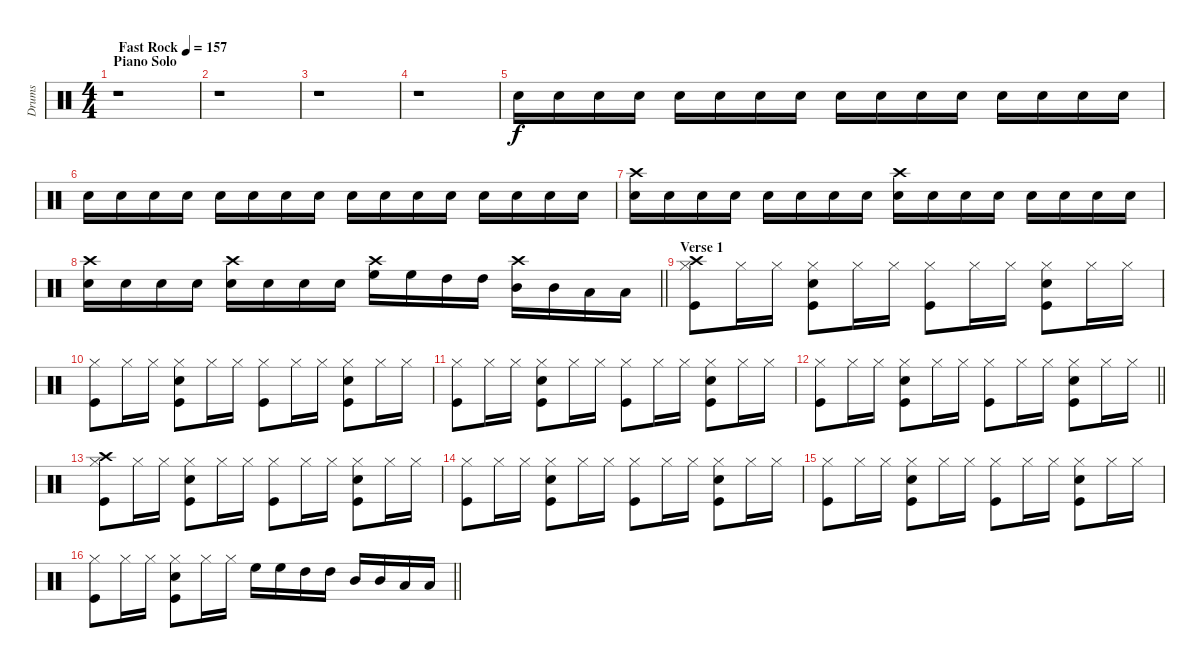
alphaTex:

\track ("Drums" "Drums") {instrument percussion}
\staff {score}
\articulation defaults
\ts (4 4)
\section ("" "Piano Solo")
\tempo (157 "Fast Rock")
\clef neutral
\ks c
r.1{dy f} |
r.1 |
r.1 |
r.1 |
"Snare (hit) 2".16 "Snare (hit) 2".16 "Snare (hit) 2".16 "Snare (hit) 2".16 "Snare (hit) 2".16 "Snare (hit) 2".16 "Snare (hit) 2".16 "Snare (hit) 2".16 "Snare (hit) 2".16 "Snare (hit) 2".16 "Snare (hit) 2".16 "Snare (hit) 2".16 "Snare (hit) 2".16 "Snare (hit) 2".16 "Snare (hit) 2".16 "Snare (hit) 2".16 |
"Snare (hit) 2".16 "Snare (hit) 2".16 "Snare (hit) 2".16 "Snare (hit) 2".16 "Snare (hit) 2".16 "Snare (hit) 2".16 "Snare (hit) 2".16 "Snare (hit) 2".16 "Snare (hit) 2".16 "Snare (hit) 2".16 "Snare (hit) 2".16 "Snare (hit) 2".16 "Snare (hit) 2".16 "Snare (hit) 2".16 "Snare (hit) 2".16 "Snare (hit) 2".16 |
("Snare (hit) 2" "Crash high (hit)").16 "Snare (hit) 2".16 "Snare (hit) 2".16 "Snare (hit) 2".16 "Snare (hit) 2".16 "Snare (hit) 2".16 "Snare (hit) 2".16 "Snare (hit) 2".16 ("Snare (hit) 2" "Crash high (hit)").16 "Snare (hit) 2".16 "Snare (hit) 2".16 "Snare (hit) 2".16 "Snare (hit) 2".16 "Snare (hit) 2".16 "Snare (hit) 2".16 "Snare (hit) 2".16 |
\barLineRight lightlight
("Snare (hit) 2" "Crash high (hit)").16 "Snare (hit) 2".16 "Snare (hit) 2".16 "Snare (hit) 2".16 ("Snare (hit) 2" "Crash high (hit)").16 "Snare (hit) 2".16 "Snare (hit) 2".16 "Snare (hit) 2".16 ("High Floor Tom (hit)" "Crash high (hit)").16 "High Floor Tom (hit)".16 "High Tom (hit)".16 "High Tom (hit)".16 ("Mid Tom (hit)" "Crash high (hit)").16 "Mid Tom (hit)".16 "Low Tom (hit)".16 "Low Tom (hit)".16 |
\section ("" "Verse 1")
("Hi-Hat (closed)" "Kick (hit)" "Crash high (hit)").8 "Hi-Hat (closed)".16 "Hi-Hat (closed)".16 ("Hi-Hat (closed)" "Kick (hit)" "Snare (hit) 2").8 "Hi-Hat (closed)".16 "Hi-Hat (closed)".16 ("Hi-Hat (closed)" "Kick (hit)").8 "Hi-Hat (closed)".16 "Hi-Hat (closed)".16 ("Hi-Hat (closed)" "Kick (hit)" "Snare (hit) 2").8 "Hi-Hat (closed)".16 "Hi-Hat (closed)".16 |
("Hi-Hat (closed)" "Kick (hit)").8 "Hi-Hat (closed)".16 "Hi-Hat (closed)".16 ("Hi-Hat (closed)" "Kick (hit)" "Snare (hit) 2").8 "Hi-Hat (closed)".16 "Hi-Hat (closed)".16 ("Hi-Hat (closed)" "Kick (hit)").8 "Hi-Hat (closed)".16 "Hi-Hat (closed)".16 ("Hi-Hat (closed)" "Kick (hit)" "Snare (hit) 2").8 "Hi-Hat (closed)".16 "Hi-Hat (closed)".16 |
("Hi-Hat (closed)" "Kick (hit)").8 "Hi-Hat (closed)".16 "Hi-Hat (closed)".16 ("Hi-Hat (closed)" "Kick (hit)" "Snare (hit) 2").8 "Hi-Hat (closed)".16 "Hi-Hat (closed)".16 ("Hi-Hat (closed)" "Kick (hit)").8 "Hi-Hat (closed)".16 "Hi-Hat (closed)".16 ("Hi-Hat (closed)" "Kick (hit)" "Snare (hit) 2").8 "Hi-Hat (closed)".16 "Hi-Hat (closed)".16 |
\barLineRight lightlight
("Hi-Hat (closed)" "Kick (hit)").8 "Hi-Hat (closed)".16 "Hi-Hat (closed)".16 ("Hi-Hat (closed)" "Kick (hit)" "Snare (hit) 2").8 "Hi-Hat (closed)".16 "Hi-Hat (closed)".16 ("Hi-Hat (closed)" "Kick (hit)").8 "Hi-Hat (closed)".16 "Hi-Hat (closed)".16 ("Hi-Hat (closed)" "Kick (hit)" "Snare (hit) 2").8 "Hi-Hat (closed)".16 "Hi-Hat (closed)".16 |
("Hi-Hat (closed)" "Kick (hit)" "Crash high (hit)").8 "Hi-Hat (closed)".16 "Hi-Hat (closed)".16 ("Hi-Hat (closed)" "Kick (hit)" "Snare (hit) 2").8 "Hi-Hat (closed)".16 "Hi-Hat (closed)".16 ("Hi-Hat (closed)" "Kick (hit)").8 "Hi-Hat (closed)".16 "Hi-Hat (closed)".16 ("Hi-Hat (closed)" "Kick (hit)" "Snare (hit) 2").8 "Hi-Hat (closed)".16 "Hi-Hat (closed)".16 |
("Hi-Hat (closed)" "Kick (hit)").8 "Hi-Hat (closed)".16 "Hi-Hat (closed)".16 ("Hi-Hat (closed)" "Kick (hit)" "Snare (hit) 2").8 "Hi-Hat (closed)".16 "Hi-Hat (closed)".16 ("Hi-Hat (closed)" "Kick (hit)").8 "Hi-Hat (closed)".16 "Hi-Hat (closed)".16 ("Hi-Hat (closed)" "Kick (hit)" "Snare (hit) 2").8 "Hi-Hat (closed)".16 "Hi-Hat (closed)".16 |
("Hi-Hat (closed)" "Kick (hit)").8 "Hi-Hat (closed)".16 "Hi-Hat (closed)".16 ("Hi-Hat (closed)" "Kick (hit)" "Snare (hit) 2").8 "Hi-Hat (closed)".16 "Hi-Hat (closed)".16 ("Hi-Hat (closed)" "Kick (hit)").8 "Hi-Hat (closed)".16 "Hi-Hat (closed)".16 ("Hi-Hat (closed)" "Kick (hit)" "Snare (hit) 2").8 "Hi-Hat (closed)".16 "Hi-Hat (closed)".16 |
\barLineRight lightlight
("Hi-Hat (closed)" "Kick (hit)").8 "Hi-Hat (closed)".16 "Hi-Hat (closed)".16 ("Hi-Hat (closed)" "Kick (hit)" "Snare (hit) 2").8 "Hi-Hat (closed)".16 "Hi-Hat (closed)".16 "High Floor Tom (hit)".16 "High Floor Tom (hit)".16 "High Tom (hit)".16 "High Tom (hit)".16 "Mid Tom (hit)".16 "Mid Tom (hit)".16 "Low Tom (hit)".16 "Low Tom (hit)".16
